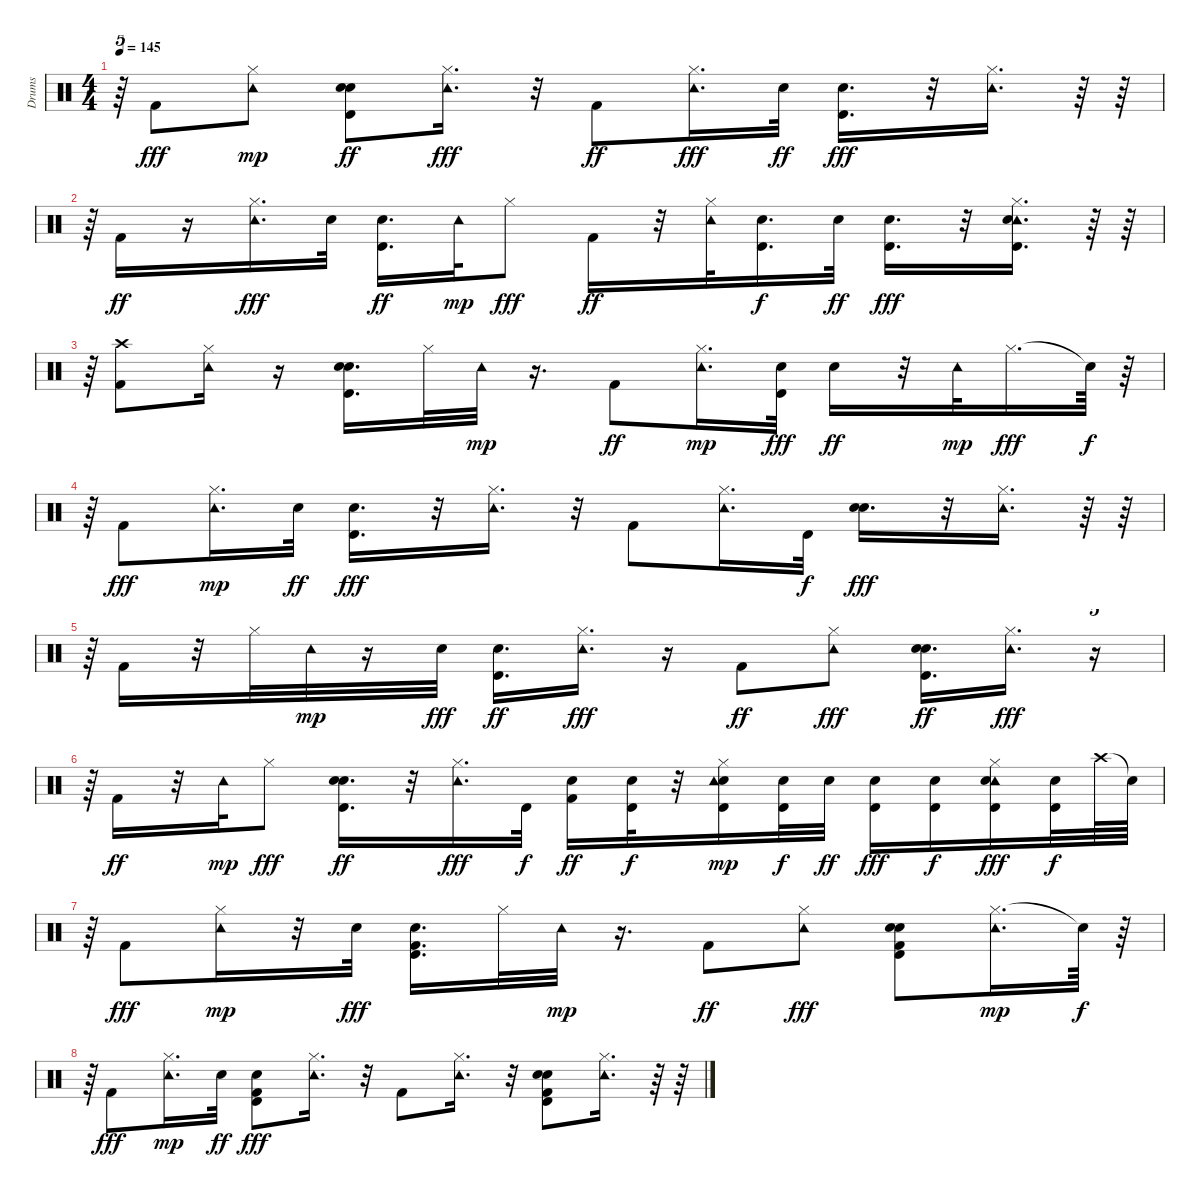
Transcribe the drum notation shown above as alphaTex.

\track ("Drums" "Drums") {instrument percussion}
\staff {score}
\articulation defaults
\ts (4 4)
\tempo 145
\clef neutral
\ks c
r.64{tu (5 4) dy mp} "Kick (hit) 2".8{dy fff} ("Hi-Hat (closed)" "Tambourine (hit)").8{dy mp} ("Hand Clap (hit)" "Timbale high (hit)" "Snare (hit) 2").8{dy ff} ("Tambourine (hit)" "Hi-Hat (closed)").16{d dy fff} r.32 "Kick (hit) 2".8{dy ff} ("Tambourine (hit)" "Hi-Hat (closed)").16{d dy fff} "Snare (hit) 2".32{dy ff} ("Timbale high (hit)" "Hand Clap (hit)").16{d dy fff} r.32 ("Tambourine (hit)" "Hi-Hat (closed)").16{d} r.64 r.64 |
r.64{tu (5 4)} "Kick (hit) 2".16{dy ff} r.16 ("Tambourine (hit)" "Hi-Hat (closed)").16{d dy fff} "Hand Clap (hit)".32 ("Snare (hit) 2" "Timbale high (hit)").16{d dy ff} "Tambourine (hit)".32{dy mp} "Hi-Hat (closed)".8{dy fff} "Kick (hit) 2".16{dy ff} r.32 ("Tambourine (hit)" "Hi-Hat (closed)").32 ("Timbale high (hit)" "Snare (hit) 2").16{d dy f} "Snare (hit) 2".32{dy ff} ("Hand Clap (hit)" "Timbale high (hit)").16{d dy fff} r.32 ("Tambourine (hit)" "Snare (hit) 2" "Timbale high (hit)" "Hi-Hat (closed)").16{d} r.64 r.64 |
r.64{tu (5 4)} ("Kick (hit) 2" "Crash high (hit)").8 ("Tambourine (hit)" "Hi-Hat (closed)").16 r.16 ("Snare (hit) 2" "Timbale high (hit)" "Hand Clap (hit)").16{d} "Hi-Hat (closed)".32 "Tambourine (hit)".32{dy mp} r.16{d} "Kick (hit) 2".8{dy ff} ("Hi-Hat (closed)" "Tambourine (hit)").16{d dy mp} ("Timbale high (hit)" "Hand Clap (hit)").32{dy fff} "Snare (hit) 2".16{dy ff} r.32 "Tambourine (hit)".32{dy mp} "Hi-Hat (closed)".16{d dy fff} "Snare (hit)"{t}.64{dy f} r.64 |
r.64{tu (5 4)} "Kick (hit) 2".8{dy fff} ("Hi-Hat (closed)" "Tambourine (hit)").16{d dy mp} "Snare (hit) 2".32{dy ff} ("Timbale high (hit)" "Hand Clap (hit)").16{d dy fff} r.32 ("Tambourine (hit)" "Hi-Hat (closed)").16{d} r.32 "Kick (hit) 2".8 ("Tambourine (hit)" "Hi-Hat (closed)").16{d} "Timbale high (hit)".32{dy f} ("Snare (hit) 2" "Hand Clap (hit)").16{d dy fff} r.32 ("Tambourine (hit)" "Hi-Hat (closed)").16{d} r.64 r.64 |
r.64{tu (5 4)} "Kick (hit) 2".16 r.32 "Hi-Hat (closed)".32 "Tambourine (hit)".32{dy mp} r.16 "Hand Clap (hit)".32{dy fff} ("Snare (hit) 2" "Timbale high (hit)").16{d dy ff} ("Tambourine (hit)" "Hi-Hat (closed)").16{d dy fff} r.16 "Kick (hit) 2".8{dy ff} ("Tambourine (hit)" "Hi-Hat (closed)").8{dy fff} ("Timbale high (hit)" "Hand Clap (hit)" "Snare (hit) 2").16{d dy ff} ("Tambourine (hit)" "Hi-Hat (closed)").16{d dy fff} r.16{tu (5 4)} |
r.64{tu (5 4)} "Kick (hit) 2".16{dy ff} r.32 "Tambourine (hit)".32{dy mp} "Hi-Hat (closed)".8{dy fff} ("Hand Clap (hit)" "Timbale high (hit)" "Snare (hit) 2").16{d dy ff} r.32 ("Tambourine (hit)" "Hi-Hat (closed)").16{d dy fff} "Timbale high (hit)".32{dy f} ("Kick (hit) 2" "Snare (hit) 2").16{dy ff} ("Timbale high (hit)" "Snare (hit) 2").32{dy f} r.32 ("Timbale high (hit)" "Hi-Hat (closed)" "Snare (hit) 2" "Tambourine (hit)").16{dy mp} ("Snare (hit) 2" "Timbale high (hit)").32{dy f} "Snare (hit) 2".32{dy ff} ("Timbale high (hit)" "Hand Clap (hit)").16{dy fff} ("Snare (hit) 2" "Timbale high (hit)").16{dy f} ("Tambourine (hit)" "Hi-Hat (closed)" "Timbale high (hit)" "Snare (hit) 2").16{dy fff} ("Timbale high (hit)" "Snare (hit) 2").32{dy f} "Crash high (hit)".64 "Snare (hit)"{t}.64 |
r.64{tu (5 4)} "Kick (hit) 2".8{dy fff} ("Hi-Hat (closed)" "Tambourine (hit)").16{dy mp} r.32 "Hand Clap (hit)".32{dy fff} ("Snare (hit) 2" "Kick (hit) 2" "Timbale high (hit)").16{d} "Hi-Hat (closed)".32 "Tambourine (hit)".32{dy mp} r.16{d} "Kick (hit) 2".8{dy ff} ("Tambourine (hit)" "Hi-Hat (closed)").8{dy fff} ("Kick (hit) 2" "Snare (hit) 2" "Timbale high (hit)" "Hand Clap (hit)").8 ("Hi-Hat (closed)" "Tambourine (hit)").16{d dy mp} "Snare (hit)"{t}.64{dy f} r.64 |
r.64{tu (5 4)} "Kick (hit) 2".8{dy fff} ("Hi-Hat (closed)" "Tambourine (hit)").16{d dy mp} "Snare (hit) 2".32{dy ff} ("Kick (hit) 2" "Timbale high (hit)" "Hand Clap (hit)").8{dy fff} ("Tambourine (hit)" "Hi-Hat (closed)").16{d} r.32 "Kick (hit) 2".8 ("Tambourine (hit)" "Hi-Hat (closed)").16{d} r.32 ("Kick (hit) 2" "Timbale high (hit)" "Snare (hit) 2" "Hand Clap (hit)").8 ("Tambourine (hit)" "Hi-Hat (closed)").16{d} r.64 r.64
